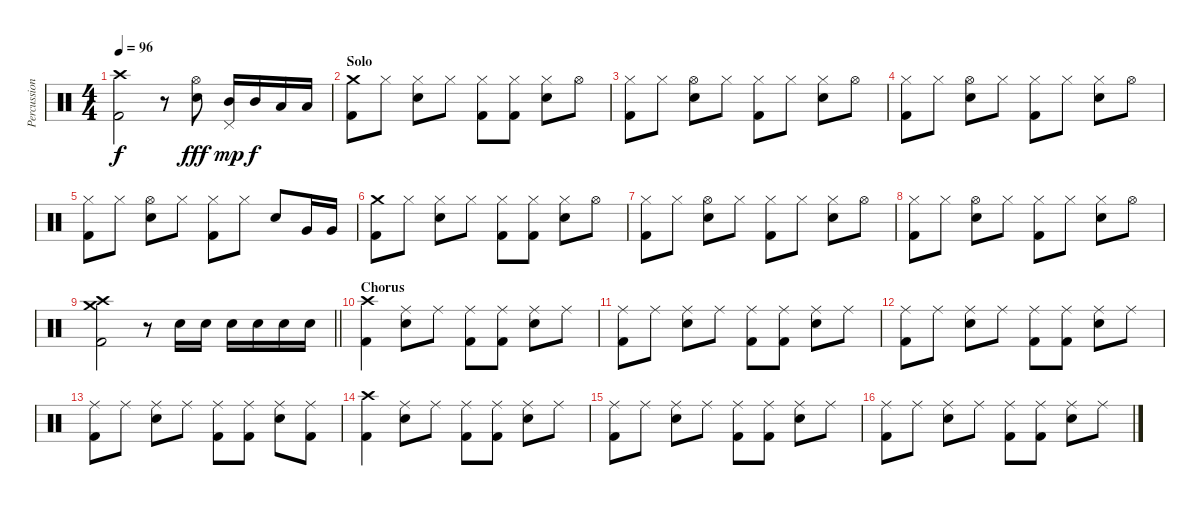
\track ("Percussion" "Percussion") {instrument percussion}
\staff {score}
\articulation defaults
\ts (4 4)
\tempo 96
\clef neutral
\ks c
("Crash high (hit)" "Kick (hit) 2").2{dy f} r.8 ("Hi-Hat (open)" "Electric Snare (hit)").8{dy fff} ("Pedal Hi-Hat (hit)" "Mid Tom (hit)").16{dy mp} "Mid Tom (hit)".16{dy f} "Low Tom (hit)".16 "Low Tom (hit)".16 |
\section ("" "Solo")
("Crash medium (hit)" "Kick (hit) 2").8 "Hi-Hat (closed)".8 ("Hi-Hat (closed)" "Electric Snare (hit)").8 "Hi-Hat (closed)".8 ("Hi-Hat (closed)" "Kick (hit) 2").8 ("Hi-Hat (closed)" "Kick (hit) 2").8 ("Hi-Hat (closed)" "Electric Snare (hit)").8 "Hi-Hat (open)".8 |
("Hi-Hat (closed)" "Kick (hit) 2").8 "Hi-Hat (closed)".8 ("Hi-Hat (open)" "Electric Snare (hit)").8 "Hi-Hat (closed)".8 ("Hi-Hat (closed)" "Kick (hit) 2").8 "Hi-Hat (closed)".8 ("Hi-Hat (closed)" "Electric Snare (hit)").8 "Hi-Hat (open)".8 |
("Hi-Hat (closed)" "Kick (hit) 2").8 "Hi-Hat (closed)".8 ("Hi-Hat (open)" "Electric Snare (hit)").8 "Hi-Hat (closed)".8 ("Hi-Hat (closed)" "Kick (hit) 2").8 "Hi-Hat (closed)".8 ("Hi-Hat (closed)" "Electric Snare (hit)").8 "Hi-Hat (open)".8 |
("Hi-Hat (closed)" "Kick (hit) 2").8 "Hi-Hat (closed)".8 ("Hi-Hat (open)" "Electric Snare (hit)").8 "Hi-Hat (closed)".8 ("Hi-Hat (closed)" "Kick (hit) 2").8 "Hi-Hat (closed)".8 "Electric Snare (hit)".8 "Very Low Tom (hit)".16 "Very Low Tom (hit)".16 |
("Crash medium (hit)" "Kick (hit) 2").8 "Hi-Hat (closed)".8 ("Hi-Hat (closed)" "Electric Snare (hit)").8 "Hi-Hat (closed)".8 ("Hi-Hat (closed)" "Kick (hit) 2").8 ("Hi-Hat (closed)" "Kick (hit) 2").8 ("Hi-Hat (closed)" "Electric Snare (hit)").8 "Hi-Hat (open)".8 |
("Hi-Hat (closed)" "Kick (hit) 2").8 "Hi-Hat (closed)".8 ("Hi-Hat (open)" "Electric Snare (hit)").8 "Hi-Hat (closed)".8 ("Hi-Hat (closed)" "Kick (hit) 2").8 "Hi-Hat (closed)".8 ("Hi-Hat (closed)" "Electric Snare (hit)").8 "Hi-Hat (open)".8 |
("Hi-Hat (closed)" "Kick (hit) 2").8 "Hi-Hat (closed)".8 ("Hi-Hat (open)" "Electric Snare (hit)").8 "Hi-Hat (closed)".8 ("Hi-Hat (closed)" "Kick (hit) 2").8 "Hi-Hat (closed)".8 ("Hi-Hat (closed)" "Electric Snare (hit)").8 "Hi-Hat (open)".8 |
\barLineRight lightlight
("Crash high (hit)" "Crash medium (hit)" "Kick (hit) 2").2 r.8 "Electric Snare (hit)".16 "Electric Snare (hit)".16 "Electric Snare (hit)".16 "Electric Snare (hit)".16 "Electric Snare (hit)".16 "Electric Snare (hit)".16 |
\section ("" "Chorus")
("Crash high (hit)" "Kick (hit) 2").4 ("Ride (middle)" "Electric Snare (hit)").8 "Ride (middle)".8 ("Ride (middle)" "Kick (hit) 2").8 ("Ride (middle)" "Kick (hit) 2").8 ("Ride (middle)" "Electric Snare (hit)").8 "Ride (middle)".8 |
("Ride (middle)" "Kick (hit) 2").8 "Ride (middle)".8 ("Ride (middle)" "Electric Snare (hit)").8 "Ride (middle)".8 ("Ride (middle)" "Kick (hit) 2").8 ("Ride (middle)" "Kick (hit) 2").8 ("Ride (middle)" "Electric Snare (hit)").8 "Ride (middle)".8 |
("Ride (middle)" "Kick (hit) 2").8 "Ride (middle)".8 ("Ride (middle)" "Electric Snare (hit)").8 "Ride (middle)".8 ("Ride (middle)" "Kick (hit) 2").8 ("Ride (middle)" "Kick (hit) 2").8 ("Ride (middle)" "Electric Snare (hit)").8 "Ride (middle)".8 |
("Ride (middle)" "Kick (hit) 2").8 "Ride (middle)".8 ("Ride (middle)" "Electric Snare (hit)").8 "Ride (middle)".8 ("Ride (middle)" "Kick (hit) 2").8 ("Ride (middle)" "Kick (hit) 2").8 ("Ride (middle)" "Electric Snare (hit)").8 ("Ride (middle)" "Kick (hit) 2").8 |
("Crash high (hit)" "Kick (hit) 2").4 ("Ride (middle)" "Electric Snare (hit)").8 "Ride (middle)".8 ("Ride (middle)" "Kick (hit) 2").8 ("Ride (middle)" "Kick (hit) 2").8 ("Ride (middle)" "Electric Snare (hit)").8 "Ride (middle)".8 |
("Ride (middle)" "Kick (hit) 2").8 "Ride (middle)".8 ("Ride (middle)" "Electric Snare (hit)").8 "Ride (middle)".8 ("Ride (middle)" "Kick (hit) 2").8 ("Ride (middle)" "Kick (hit) 2").8 ("Ride (middle)" "Electric Snare (hit)").8 "Ride (middle)".8 |
("Ride (middle)" "Kick (hit) 2").8 "Ride (middle)".8 ("Ride (middle)" "Electric Snare (hit)").8 "Ride (middle)".8 ("Ride (middle)" "Kick (hit) 2").8 ("Ride (middle)" "Kick (hit) 2").8 ("Ride (middle)" "Electric Snare (hit)").8 "Ride (middle)".8
